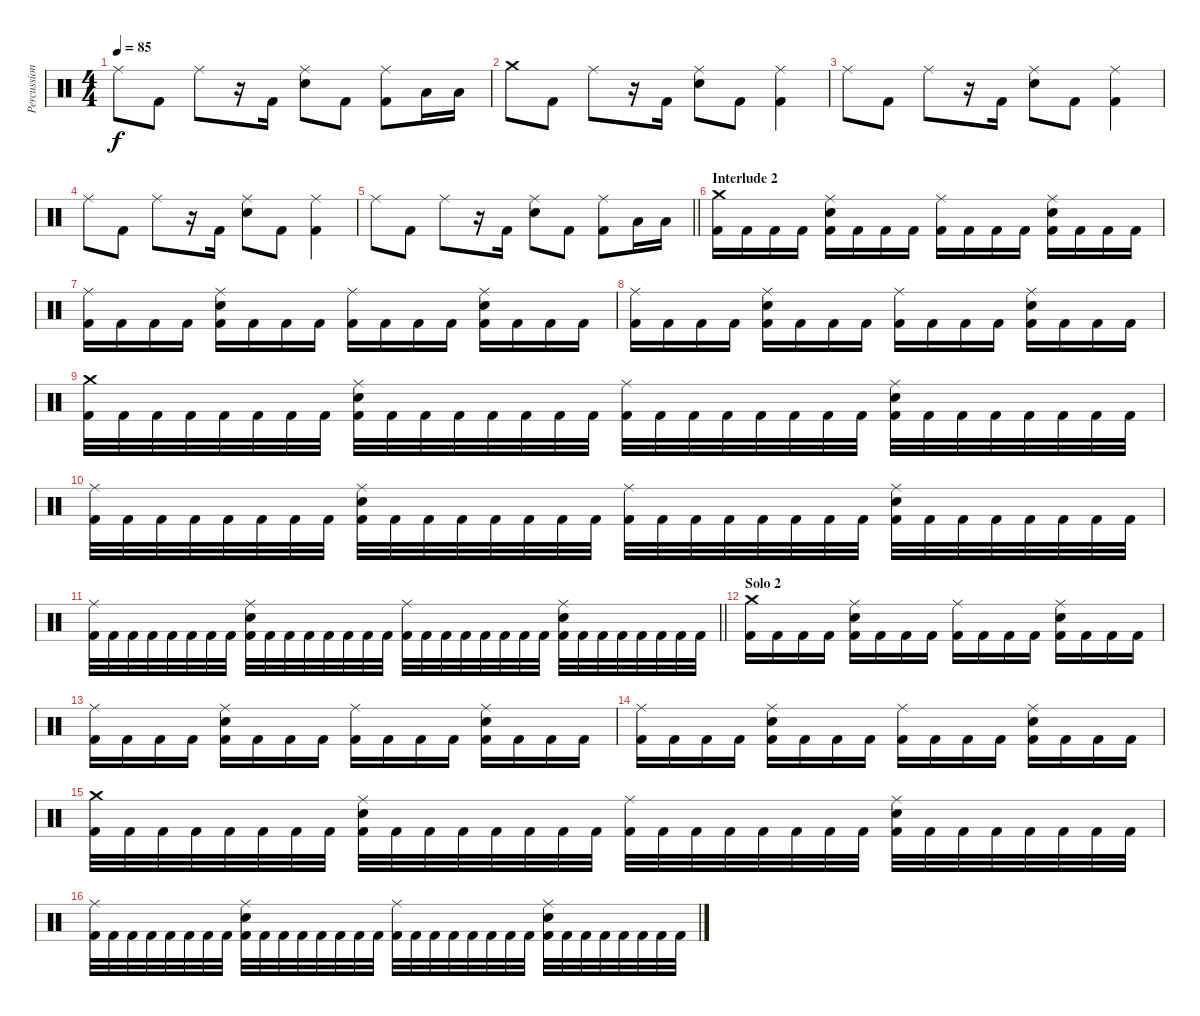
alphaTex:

\track ("Percussion" "Percussion") {instrument percussion}
\staff {score}
\articulation defaults
\ts (4 4)
\tempo 85
\clef neutral
\ks c "Ride (middle)".8{dy f} "Kick (hit) 2".8 "Ride (middle)".8
r.16 "Kick (hit) 2".16 ("Ride (middle)" "Electric Snare (hit)").8 "Kick (hit) 2".8 ("Ride (middle)" "Kick (hit) 2").8 "Low Floor Tom (hit)".16 "Low Floor Tom (hit)".16 |
"Crash medium (hit)".8 "Kick (hit) 2".8 "Ride (middle)".8 r.16 "Kick (hit) 2".16 ("Ride (middle)" "Electric Snare (hit)").8 "Kick (hit) 2".8 ("Ride (middle)" "Kick (hit) 2").4 |
"Ride (middle)".8 "Kick (hit) 2".8 "Ride (middle)".8 r.16 "Kick (hit) 2".16 ("Ride (middle)" "Electric Snare (hit)").8 "Kick (hit) 2".8 ("Ride (middle)" "Kick (hit) 2").4 |
"Ride (middle)".8 "Kick (hit) 2".8 "Ride (middle)".8 r.16 "Kick (hit) 2".16 ("Ride (middle)" "Electric Snare (hit)").8 "Kick (hit) 2".8 ("Ride (middle)" "Kick (hit) 2").4 |
\barLineRight lightlight "Ride (middle)".8 "Kick (hit) 2".8 "Ride (middle)".8
r.16 "Kick (hit) 2".16 ("Ride (middle)" "Electric Snare (hit)").8 "Kick (hit) 2".8 ("Ride (middle)" "Kick (hit) 2").8 "Low Floor Tom (hit)".16 "Low Floor Tom (hit)".16 |
\section ("" "Interlude 2")
("Crash medium (hit)" "Kick (hit) 2").16 "Kick (hit) 2".16 "Kick (hit) 2".16 "Kick (hit) 2".16 ("Ride (middle)" "Electric Snare (hit)" "Kick (hit) 2").16 "Kick (hit) 2".16 "Kick (hit) 2".16 "Kick (hit) 2".16 ("Ride (middle)" "Kick (hit) 2").16 "Kick (hit) 2".16 "Kick (hit) 2".16 "Kick (hit) 2".16 ("Ride (middle)" "Electric Snare (hit)" "Kick (hit) 2").16 "Kick (hit) 2".16 "Kick (hit) 2".16 "Kick (hit) 2".16 |
("Ride (middle)" "Kick (hit) 2").16 "Kick (hit) 2".16 "Kick (hit) 2".16 "Kick (hit) 2".16 ("Ride (middle)" "Electric Snare (hit)" "Kick (hit) 2").16 "Kick (hit) 2".16 "Kick (hit) 2".16 "Kick (hit) 2".16 ("Ride (middle)" "Kick (hit) 2").16 "Kick (hit) 2".16 "Kick (hit) 2".16 "Kick (hit) 2".16 ("Ride (middle)" "Electric Snare (hit)" "Kick (hit) 2").16 "Kick (hit) 2".16 "Kick (hit) 2".16 "Kick (hit) 2".16 |
("Ride (middle)" "Kick (hit) 2").16 "Kick (hit) 2".16 "Kick (hit) 2".16 "Kick (hit) 2".16 ("Ride (middle)" "Electric Snare (hit)" "Kick (hit) 2").16 "Kick (hit) 2".16 "Kick (hit) 2".16 "Kick (hit) 2".16 ("Ride (middle)" "Kick (hit) 2").16 "Kick (hit) 2".16 "Kick (hit) 2".16 "Kick (hit) 2".16 ("Ride (middle)" "Electric Snare (hit)" "Kick (hit) 2").16 "Kick (hit) 2".16 "Kick (hit) 2".16 "Kick (hit) 2".16 |
("Crash medium (hit)" "Kick (hit) 2").32 "Kick (hit) 2".32 "Kick (hit) 2".32 "Kick (hit) 2".32 "Kick (hit) 2".32 "Kick (hit) 2".32 "Kick (hit) 2".32 "Kick (hit) 2".32 ("Ride (middle)" "Electric Snare (hit)" "Kick (hit) 2").32 "Kick (hit) 2".32 "Kick (hit) 2".32 "Kick (hit) 2".32 "Kick (hit) 2".32 "Kick (hit) 2".32 "Kick (hit) 2".32 "Kick (hit) 2".32 ("Ride (middle)" "Kick (hit) 2").32 "Kick (hit) 2".32 "Kick (hit) 2".32 "Kick (hit) 2".32 "Kick (hit) 2".32 "Kick (hit) 2".32 "Kick (hit) 2".32 "Kick (hit) 2".32 ("Ride (middle)" "Electric Snare (hit)" "Kick (hit) 2").32 "Kick (hit) 2".32 "Kick (hit) 2".32 "Kick (hit) 2".32 "Kick (hit) 2".32 "Kick (hit) 2".32 "Kick (hit) 2".32 "Kick (hit) 2".32 |
("Ride (middle)" "Kick (hit) 2").32 "Kick (hit) 2".32 "Kick (hit) 2".32 "Kick (hit) 2".32 "Kick (hit) 2".32 "Kick (hit) 2".32 "Kick (hit) 2".32 "Kick (hit) 2".32 ("Ride (middle)" "Electric Snare (hit)" "Kick (hit) 2").32 "Kick (hit) 2".32 "Kick (hit) 2".32 "Kick (hit) 2".32 "Kick (hit) 2".32 "Kick (hit) 2".32 "Kick (hit) 2".32 "Kick (hit) 2".32 ("Ride (middle)" "Kick (hit) 2").32 "Kick (hit) 2".32 "Kick (hit) 2".32 "Kick (hit) 2".32 "Kick (hit) 2".32 "Kick (hit) 2".32 "Kick (hit) 2".32 "Kick (hit) 2".32 ("Ride (middle)" "Electric Snare (hit)" "Kick (hit) 2").32 "Kick (hit) 2".32 "Kick (hit) 2".32 "Kick (hit) 2".32 "Kick (hit) 2".32 "Kick (hit) 2".32 "Kick (hit) 2".32 "Kick (hit) 2".32 |
\barLineRight lightlight
("Ride (middle)" "Kick (hit) 2").32 "Kick (hit) 2".32 "Kick (hit) 2".32 "Kick (hit) 2".32 "Kick (hit) 2".32 "Kick (hit) 2".32 "Kick (hit) 2".32 "Kick (hit) 2".32 ("Ride (middle)" "Electric Snare (hit)" "Kick (hit) 2").32 "Kick (hit) 2".32 "Kick (hit) 2".32 "Kick (hit) 2".32 "Kick (hit) 2".32 "Kick (hit) 2".32 "Kick (hit) 2".32 "Kick (hit) 2".32 ("Ride (middle)" "Kick (hit) 2").32 "Kick (hit) 2".32 "Kick (hit) 2".32 "Kick (hit) 2".32 "Kick (hit) 2".32 "Kick (hit) 2".32 "Kick (hit) 2".32 "Kick (hit) 2".32 ("Ride (middle)" "Electric Snare (hit)" "Kick (hit) 2").32 "Kick (hit) 2".32 "Kick (hit) 2".32 "Kick (hit) 2".32 "Kick (hit) 2".32 "Kick (hit) 2".32 "Kick (hit) 2".32 "Kick (hit) 2".32 |
\section ("" "Solo 2")
("Crash medium (hit)" "Kick (hit) 2").16 "Kick (hit) 2".16 "Kick (hit) 2".16 "Kick (hit) 2".16 ("Ride (middle)" "Electric Snare (hit)" "Kick (hit) 2").16 "Kick (hit) 2".16 "Kick (hit) 2".16 "Kick (hit) 2".16 ("Ride (middle)" "Kick (hit) 2").16 "Kick (hit) 2".16 "Kick (hit) 2".16 "Kick (hit) 2".16 ("Ride (middle)" "Electric Snare (hit)" "Kick (hit) 2").16 "Kick (hit) 2".16 "Kick (hit) 2".16 "Kick (hit) 2".16 |
("Ride (middle)" "Kick (hit) 2").16 "Kick (hit) 2".16 "Kick (hit) 2".16 "Kick (hit) 2".16 ("Ride (middle)" "Electric Snare (hit)" "Kick (hit) 2").16 "Kick (hit) 2".16 "Kick (hit) 2".16 "Kick (hit) 2".16 ("Ride (middle)" "Kick (hit) 2").16 "Kick (hit) 2".16 "Kick (hit) 2".16 "Kick (hit) 2".16 ("Ride (middle)" "Electric Snare (hit)" "Kick (hit) 2").16 "Kick (hit) 2".16 "Kick (hit) 2".16 "Kick (hit) 2".16 |
("Ride (middle)" "Kick (hit) 2").16 "Kick (hit) 2".16 "Kick (hit) 2".16 "Kick (hit) 2".16 ("Ride (middle)" "Electric Snare (hit)" "Kick (hit) 2").16 "Kick (hit) 2".16 "Kick (hit) 2".16 "Kick (hit) 2".16 ("Ride (middle)" "Kick (hit) 2").16 "Kick (hit) 2".16 "Kick (hit) 2".16 "Kick (hit) 2".16 ("Ride (middle)" "Electric Snare (hit)" "Kick (hit) 2").16 "Kick (hit) 2".16 "Kick (hit) 2".16 "Kick (hit) 2".16 |
("Crash medium (hit)" "Kick (hit) 2").32 "Kick (hit) 2".32 "Kick (hit) 2".32 "Kick (hit) 2".32 "Kick (hit) 2".32 "Kick (hit) 2".32 "Kick (hit) 2".32 "Kick (hit) 2".32 ("Ride (middle)" "Electric Snare (hit)" "Kick (hit) 2").32 "Kick (hit) 2".32 "Kick (hit) 2".32 "Kick (hit) 2".32 "Kick (hit) 2".32 "Kick (hit) 2".32 "Kick (hit) 2".32 "Kick (hit) 2".32 ("Ride (middle)" "Kick (hit) 2").32 "Kick (hit) 2".32 "Kick (hit) 2".32 "Kick (hit) 2".32 "Kick (hit) 2".32 "Kick (hit) 2".32 "Kick (hit) 2".32 "Kick (hit) 2".32 ("Ride (middle)" "Electric Snare (hit)" "Kick (hit) 2").32 "Kick (hit) 2".32 "Kick (hit) 2".32 "Kick (hit) 2".32 "Kick (hit) 2".32 "Kick (hit) 2".32 "Kick (hit) 2".32 "Kick (hit) 2".32 |
("Ride (middle)" "Kick (hit) 2").32 "Kick (hit) 2".32 "Kick (hit) 2".32 "Kick (hit) 2".32 "Kick (hit) 2".32 "Kick (hit) 2".32 "Kick (hit) 2".32 "Kick (hit) 2".32 ("Ride (middle)" "Electric Snare (hit)" "Kick (hit) 2").32 "Kick (hit) 2".32 "Kick (hit) 2".32 "Kick (hit) 2".32 "Kick (hit) 2".32 "Kick (hit) 2".32 "Kick (hit) 2".32 "Kick (hit) 2".32 ("Ride (middle)" "Kick (hit) 2").32 "Kick (hit) 2".32 "Kick (hit) 2".32 "Kick (hit) 2".32 "Kick (hit) 2".32 "Kick (hit) 2".32 "Kick (hit) 2".32 "Kick (hit) 2".32 ("Ride (middle)" "Electric Snare (hit)" "Kick (hit) 2").32 "Kick (hit) 2".32 "Kick (hit) 2".32 "Kick (hit) 2".32 "Kick (hit) 2".32 "Kick (hit) 2".32 "Kick (hit) 2".32 "Kick (hit) 2".32
